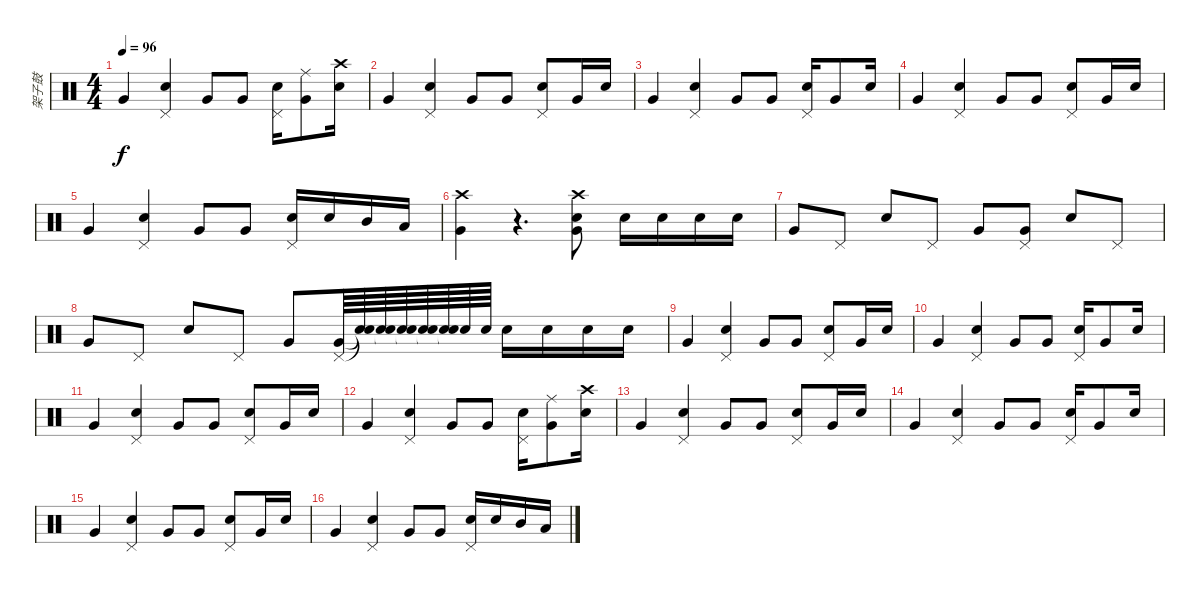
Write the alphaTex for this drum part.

\track ("架子鼓" "架子鼓") {instrument percussion}
\staff {score}
\articulation defaults
\ts (4 4)
\tempo 96
\clef neutral
\ks c "Very Low Tom (hit)".4{dy f}
("Pedal Hi-Hat (hit)" "Snare (hit) 2").4 "Very Low Tom (hit)".8 "Very Low Tom (hit)".8 ("Pedal Hi-Hat (hit)" "Snare (hit) 2").16 ("Ride (middle)" "Very Low Tom (hit)").8 ("Crash high (hit)" "Snare (hit) 2").16 |
"Very Low Tom (hit)".4 ("Pedal Hi-Hat (hit)" "Snare (hit) 2").4 "Very Low Tom (hit)".8 "Very Low Tom (hit)".8 ("Pedal Hi-Hat (hit)" "Snare (hit) 2").8 "Very Low Tom (hit)".16 "Snare (hit) 2".16 |
"Very Low Tom (hit)".4 ("Pedal Hi-Hat (hit)" "Snare (hit) 2").4 "Very Low Tom (hit)".8 "Very Low Tom (hit)".8 ("Pedal Hi-Hat (hit)" "Snare (hit) 2").16 "Very Low Tom (hit)".8 "Snare (hit) 2".16 |
"Very Low Tom (hit)".4 ("Pedal Hi-Hat (hit)" "Snare (hit) 2").4 "Very Low Tom (hit)".8 "Very Low Tom (hit)".8 ("Pedal Hi-Hat (hit)" "Snare (hit) 2").8 "Very Low Tom (hit)".16 "Snare (hit) 2".16 |
"Very Low Tom (hit)".4 ("Pedal Hi-Hat (hit)" "Snare (hit) 2").4 "Very Low Tom (hit)".8 "Very Low Tom (hit)".8 ("Pedal Hi-Hat (hit)" "Snare (hit) 2").16 "Snare (hit) 2".16 "Mid Tom (hit)".16 "Low Tom (hit)".16 |
("Crash high (hit)" "Very Low Tom (hit)").4 r.4{d} ("Crash high (hit)" "Snare (hit) 2" "Very Low Tom (hit)").8 "Snare (hit) 2".16 "Snare (hit) 2".16 "Snare (hit) 2".16 "Snare (hit) 2".16 |
"Very Low Tom (hit)".8 "Pedal Hi-Hat (hit)".8 "Snare (hit) 2".8 "Pedal Hi-Hat (hit)".8 "Very Low Tom (hit)".8 ("Pedal Hi-Hat (hit)" "Very Low Tom (hit)").8 "Snare (hit) 2".8 "Pedal Hi-Hat (hit)".8 |
"Very Low Tom (hit)".8 "Pedal Hi-Hat (hit)".8 "Snare (hit) 2".8 "Pedal Hi-Hat (hit)".8 "Very Low Tom (hit)".8 ("Pedal Hi-Hat (hit)" "Very Low Tom (hit)").64 ("Snare (hit)"{t} "Snare (hit)"{t}).64 ("Snare (hit)"{t} "Snare (hit)"{t}).64 ("Snare (hit)"{t} "Snare (hit)"{t}).64 ("Snare (hit)"{t} "Snare (hit)"{t}).64 ("Snare (hit)"{t} "Snare (hit)"{t}).64 "Snare (hit) 2".64 "Snare (hit) 2".64 "Snare (hit) 2".16 "Snare (hit) 2".16 "Snare (hit) 2".16 "Snare (hit) 2".16 |
"Very Low Tom (hit)".4 ("Pedal Hi-Hat (hit)" "Snare (hit) 2").4 "Very Low Tom (hit)".8 "Very Low Tom (hit)".8 ("Pedal Hi-Hat (hit)" "Snare (hit) 2").8 "Very Low Tom (hit)".16 "Snare (hit) 2".16 |
"Very Low Tom (hit)".4 ("Pedal Hi-Hat (hit)" "Snare (hit) 2").4 "Very Low Tom (hit)".8 "Very Low Tom (hit)".8 ("Pedal Hi-Hat (hit)" "Snare (hit) 2").16 "Very Low Tom (hit)".8 "Snare (hit) 2".16 |
"Very Low Tom (hit)".4 ("Pedal Hi-Hat (hit)" "Snare (hit) 2").4 "Very Low Tom (hit)".8 "Very Low Tom (hit)".8 ("Pedal Hi-Hat (hit)" "Snare (hit) 2").8 "Very Low Tom (hit)".16 "Snare (hit) 2".16 |
"Very Low Tom (hit)".4 ("Pedal Hi-Hat (hit)" "Snare (hit) 2").4 "Very Low Tom (hit)".8 "Very Low Tom (hit)".8 ("Pedal Hi-Hat (hit)" "Snare (hit) 2").16 ("Ride (middle)" "Very Low Tom (hit)").8 ("Crash high (hit)" "Snare (hit) 2").16 |
"Very Low Tom (hit)".4 ("Pedal Hi-Hat (hit)" "Snare (hit) 2").4 "Very Low Tom (hit)".8 "Very Low Tom (hit)".8 ("Pedal Hi-Hat (hit)" "Snare (hit) 2").8 "Very Low Tom (hit)".16 "Snare (hit) 2".16 |
"Very Low Tom (hit)".4 ("Pedal Hi-Hat (hit)" "Snare (hit) 2").4 "Very Low Tom (hit)".8 "Very Low Tom (hit)".8 ("Pedal Hi-Hat (hit)" "Snare (hit) 2").16 "Very Low Tom (hit)".8 "Snare (hit) 2".16 |
"Very Low Tom (hit)".4 ("Pedal Hi-Hat (hit)" "Snare (hit) 2").4 "Very Low Tom (hit)".8 "Very Low Tom (hit)".8 ("Pedal Hi-Hat (hit)" "Snare (hit) 2").8 "Very Low Tom (hit)".16 "Snare (hit) 2".16 |
"Very Low Tom (hit)".4 ("Pedal Hi-Hat (hit)" "Snare (hit) 2").4 "Very Low Tom (hit)".8 "Very Low Tom (hit)".8 ("Pedal Hi-Hat (hit)" "Snare (hit) 2").16 "Snare (hit) 2".16 "Mid Tom (hit)".16 "Low Tom (hit)".16
